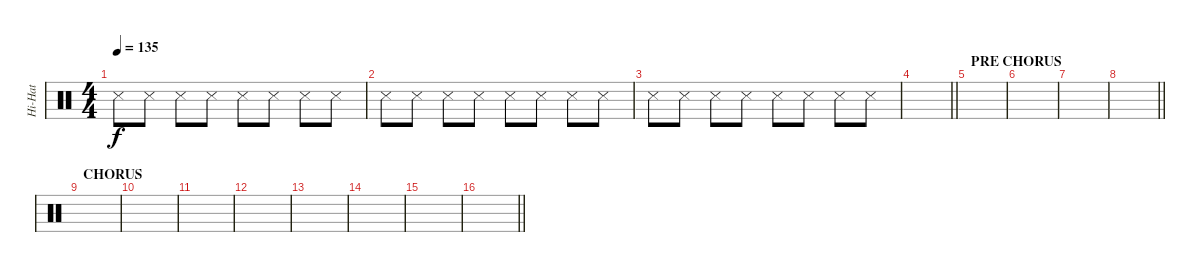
\track ("Hi-Hat" "Hi-Hat") {instrument percussion}
\staff {score}
\articulation defaults
\ts (4 4)
\tempo 135
\clef neutral
\ks c "Metronome (hit)".8{dy f} "Metronome (hit)".8 "Metronome (hit)".8 "Metronome (hit)".8 "Metronome (hit)".8 "Metronome (hit)".8 "Metronome (hit)".8 "Metronome (hit)".8
|
"Metronome (hit)".8 "Metronome (hit)".8 "Metronome (hit)".8 "Metronome (hit)".8 "Metronome (hit)".8 "Metronome (hit)".8 "Metronome (hit)".8 "Metronome (hit)".8 |
"Metronome (hit)".8 "Metronome (hit)".8 "Metronome (hit)".8 "Metronome (hit)".8 "Metronome (hit)".8 "Metronome (hit)".8 "Metronome (hit)".8 "Metronome (hit)".8 |
\barLineRight lightlight
|
\section ("" "PRE CHORUS")
|
|
|
\barLineRight lightlight
|
\section ("" "CHORUS")
|
|
|
|
|
|
|
\barLineRight lightlight
